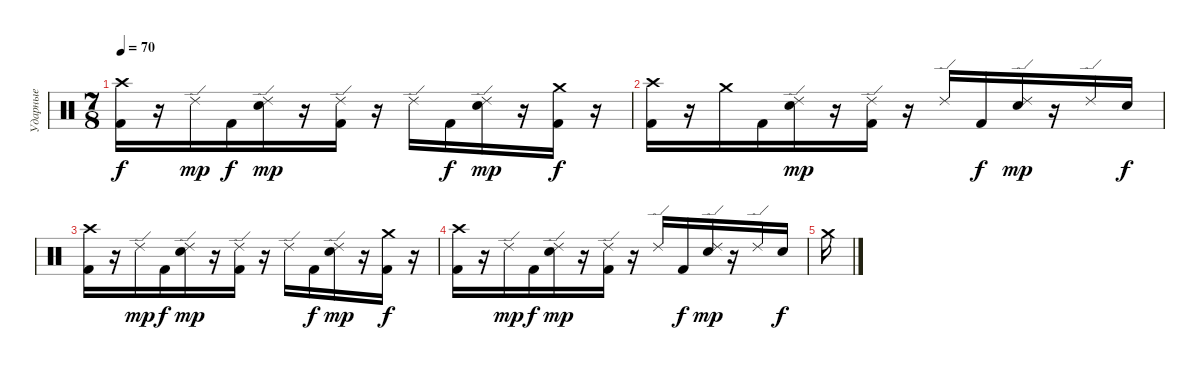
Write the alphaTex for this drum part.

\track ("Ударные" "Ударные") {instrument percussion}
\staff {score}
\articulation defaults
\ts (7 8)
\tempo 70
\clef neutral
\ks c
("Crash high (hit)" "Kick (hit) 2").16{dy f volume 2} r.16 "Ride (edge) 2".16{dy mp} "Kick (hit) 2".16{dy f} ("Ride (edge) 2" "Snare (hit) 2").16{dy mp} r.16 ("Ride (edge) 2" "Kick (hit) 2").16 r.16 "Ride (edge) 2".16 "Kick (hit) 2".16{dy f} ("Ride (edge) 2" "Snare (hit) 2").16{dy mp} r.16 ("Crash medium (hit)" "Kick (hit) 2").16{dy f} r.16 |
("Crash high (hit)" "Kick (hit) 2").16 r.16 "Crash medium (hit)".16 "Kick (hit) 2".16 ("Ride (edge) 2" "Snare (hit) 2").16{dy mp} r.16 ("Ride (edge) 2" "Kick (hit) 2").16 r.16 "Ride (edge) 2".16 "Kick (hit) 2".16{dy f} ("Ride (edge) 2" "Snare (hit) 2").16{dy mp} r.16 "Ride (edge) 2".16 "Snare (hit) 2".16{dy f} |
("Crash high (hit)" "Kick (hit) 2").16 r.16 "Ride (edge) 2".16{dy mp} "Kick (hit) 2".16{dy f} ("Ride (edge) 2" "Snare (hit) 2").16{dy mp} r.16 ("Ride (edge) 2" "Kick (hit) 2").16 r.16 "Ride (edge) 2".16 "Kick (hit) 2".16{dy f} ("Ride (edge) 2" "Snare (hit) 2").16{dy mp} r.16 ("Crash medium (hit)" "Kick (hit) 2").16{dy f} r.16 |
("Crash high (hit)" "Kick (hit) 2").16 r.16 "Ride (edge) 2".16{dy mp} "Kick (hit) 2".16{dy f} ("Ride (edge) 2" "Snare (hit) 2").16{dy mp} r.16 ("Ride (edge) 2" "Kick (hit) 2").16 r.16 "Ride (edge) 2".16 "Kick (hit) 2".16{dy f} ("Ride (edge) 2" "Snare (hit) 2").16{dy mp} r.16 "Ride (edge) 2".16 "Snare (hit) 2".16{dy f} |
"Crash medium (hit)".16
